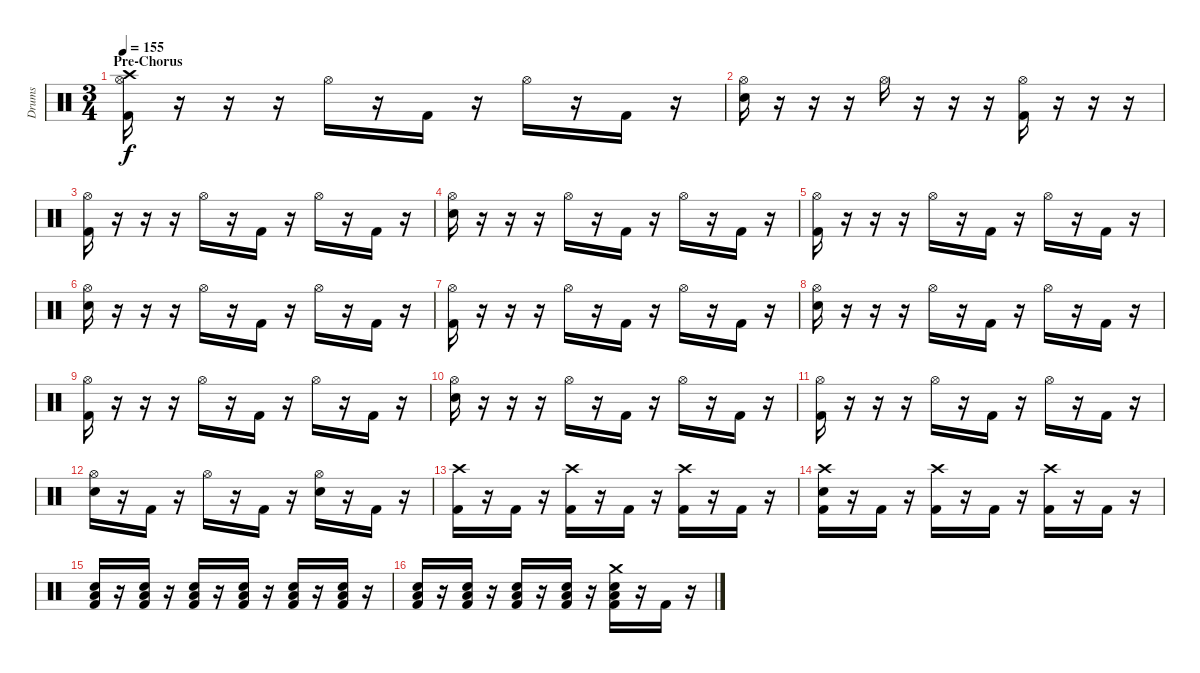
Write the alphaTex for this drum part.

\track ("Drums" "Drums") {instrument percussion}
\staff {score}
\articulation defaults
\ts (3 4)
\section ("" "Pre-Chorus")
\tempo 155
\clef neutral
\ks c
("Crash high (hit)" "Hi-Hat (open)" "Kick (hit) 2").16{dy f} r.16 r.16 r.16 "Hi-Hat (open)".16 r.16 "Kick (hit) 2".16 r.16 "Hi-Hat (open)".16 r.16 "Kick (hit) 2".16 r.16 |
("Hi-Hat (open)" "Snare (hit) 2").16 r.16 r.16 r.16 "Hi-Hat (open)".16 r.16 r.16 r.16 ("Hi-Hat (open)" "Kick (hit) 2").16 r.16 r.16 r.16 |
("Hi-Hat (open)" "Kick (hit) 2").16 r.16 r.16 r.16 "Hi-Hat (open)".16 r.16 "Kick (hit) 2".16 r.16 "Hi-Hat (open)".16 r.16 "Kick (hit) 2".16 r.16 |
("Hi-Hat (open)" "Snare (hit) 2").16 r.16 r.16 r.16 "Hi-Hat (open)".16 r.16 "Kick (hit) 2".16 r.16 "Hi-Hat (open)".16 r.16 "Kick (hit) 2".16 r.16 |
("Hi-Hat (open)" "Kick (hit) 2").16 r.16 r.16 r.16 "Hi-Hat (open)".16 r.16 "Kick (hit) 2".16 r.16 "Hi-Hat (open)".16 r.16 "Kick (hit) 2".16 r.16 |
("Hi-Hat (open)" "Snare (hit) 2").16 r.16 r.16 r.16 "Hi-Hat (open)".16 r.16 "Kick (hit) 2".16 r.16 "Hi-Hat (open)".16 r.16 "Kick (hit) 2".16 r.16 |
("Hi-Hat (open)" "Kick (hit) 2").16 r.16 r.16 r.16 "Hi-Hat (open)".16 r.16 "Kick (hit) 2".16 r.16 "Hi-Hat (open)".16 r.16 "Kick (hit) 2".16 r.16 |
("Hi-Hat (open)" "Snare (hit) 2").16 r.16 r.16 r.16 "Hi-Hat (open)".16 r.16 "Kick (hit) 2".16 r.16 "Hi-Hat (open)".16 r.16 "Kick (hit) 2".16 r.16 |
("Hi-Hat (open)" "Kick (hit) 2").16 r.16 r.16 r.16 "Hi-Hat (open)".16 r.16 "Kick (hit) 2".16 r.16 "Hi-Hat (open)".16 r.16 "Kick (hit) 2".16 r.16 |
("Hi-Hat (open)" "Snare (hit) 2").16 r.16 r.16 r.16 "Hi-Hat (open)".16 r.16 "Kick (hit) 2".16 r.16 "Hi-Hat (open)".16 r.16 "Kick (hit) 2".16 r.16 |
("Hi-Hat (open)" "Kick (hit) 2").16 r.16 r.16 r.16 "Hi-Hat (open)".16 r.16 "Kick (hit) 2".16 r.16 "Hi-Hat (open)".16 r.16 "Kick (hit) 2".16 r.16 |
("Hi-Hat (open)" "Snare (hit) 2").16 r.16 "Kick (hit) 2".16 r.16 "Hi-Hat (open)".16 r.16 "Kick (hit) 2".16 r.16 ("Hi-Hat (open)" "Snare (hit) 2").16 r.16 "Kick (hit) 2".16 r.16 |
("Crash high (hit)" "Kick (hit) 2").16 r.16 "Kick (hit) 2".16 r.16 ("Crash high (hit)" "Kick (hit) 2").16 r.16 "Kick (hit) 2".16 r.16 ("Crash high (hit)" "Kick (hit) 2").16 r.16 "Kick (hit) 2".16 r.16 |
("Crash high (hit)" "Snare (hit) 2" "Kick (hit) 2").16 r.16 "Kick (hit) 2".16 r.16 ("Crash high (hit)" "Kick (hit) 2").16 r.16 "Kick (hit) 2".16 r.16 ("Crash high (hit)" "Kick (hit) 2").16 r.16 "Kick (hit) 2".16 r.16 |
("Low Floor Tom (hit)" "Snare (hit) 2" "Kick (hit) 2").16 r.16 ("Low Floor Tom (hit)" "Snare (hit) 2" "Kick (hit) 2").16 r.16 ("Low Floor Tom (hit)" "Snare (hit) 2" "Kick (hit) 2").16 r.16 ("Low Floor Tom (hit)" "Snare (hit) 2" "Kick (hit) 2").16 r.16 ("Low Floor Tom (hit)" "Snare (hit) 2" "Kick (hit) 2").16 r.16 ("Low Floor Tom (hit)" "Snare (hit) 2" "Kick (hit) 2").16 r.16 |
("Low Floor Tom (hit)" "Snare (hit) 2" "Kick (hit) 2").16 r.16 ("Low Floor Tom (hit)" "Snare (hit) 2" "Kick (hit) 2").16 r.16 ("Low Floor Tom (hit)" "Snare (hit) 2" "Kick (hit) 2").16 r.16 ("Low Floor Tom (hit)" "Snare (hit) 2" "Kick (hit) 2").16 r.16 ("Crash medium (hit)" "Low Floor Tom (hit)" "Snare (hit) 2" "Kick (hit) 2").16 r.16 "Kick (hit) 2".16 r.16
